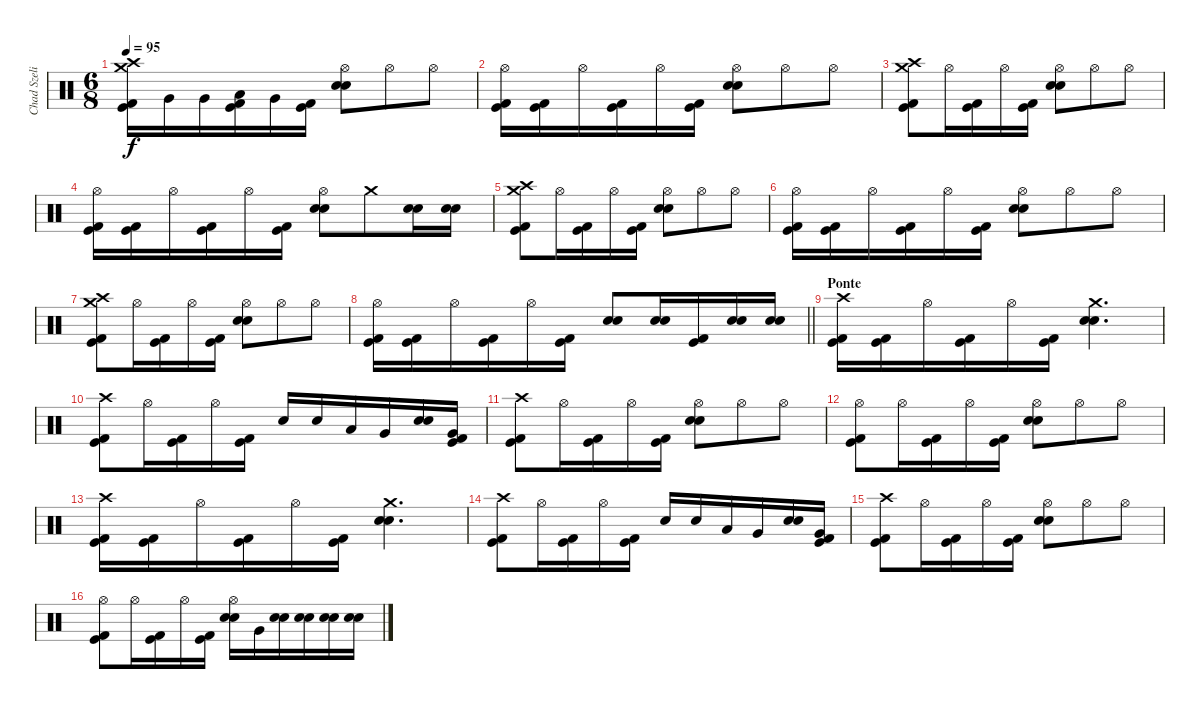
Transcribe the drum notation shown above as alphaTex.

\track ("Chad Szeliga" "Chad Szeli") {instrument percussion}
\staff {score}
\articulation defaults
\ts (6 8)
\tempo 95
\clef neutral
\ks c
("Crash high (hit)" "Kick (hit) 2" "Kick (hit)" "Crash medium (hit)").16{dy f} "Very Low Tom (hit)".16 "Very Low Tom (hit)".16 ("Kick (hit) 2" "Kick (hit)" "Low Tom (hit)").16 "Very Low Tom (hit)".16 ("Kick (hit) 2" "Kick (hit)").16 ("Snare (hit) 2" "Snare (hit) 2" "Hi-Hat (open)").8 "Hi-Hat (open)".8 "Hi-Hat (open)".8 |
("Kick (hit) 2" "Kick (hit)" "Hi-Hat (open)").16 ("Kick (hit) 2" "Kick (hit)").16 "Hi-Hat (open)".16 ("Kick (hit) 2" "Kick (hit)").16 "Hi-Hat (open)".16 ("Kick (hit) 2" "Kick (hit)").16 ("Snare (hit) 2" "Snare (hit) 2" "Hi-Hat (open)").8 "Hi-Hat (open)".8 "Hi-Hat (open)".8 |
("Crash high (hit)" "Kick (hit) 2" "Kick (hit)" "Crash medium (hit)").8 "Hi-Hat (open)".16 ("Kick (hit) 2" "Kick (hit)").16 "Hi-Hat (open)".16 ("Kick (hit) 2" "Kick (hit)").16 ("Snare (hit) 2" "Snare (hit) 2" "Hi-Hat (open)").8 "Hi-Hat (open)".8 "Hi-Hat (open)".8 |
("Kick (hit) 2" "Kick (hit)" "Hi-Hat (open)").16 ("Kick (hit) 2" "Kick (hit)").16 "Hi-Hat (open)".16 ("Kick (hit) 2" "Kick (hit)").16 "Hi-Hat (open)".16 ("Kick (hit) 2" "Kick (hit)").16 ("Snare (hit) 2" "Snare (hit) 2" "Hi-Hat (open)").8 "Crash medium (hit)".8 ("Snare (hit) 2" "Snare (hit) 2").16 ("Snare (hit) 2" "Snare (hit) 2").16 |
("Crash high (hit)" "Kick (hit) 2" "Kick (hit)" "Crash medium (hit)").8 "Hi-Hat (open)".16 ("Kick (hit) 2" "Kick (hit)").16 "Hi-Hat (open)".16 ("Kick (hit) 2" "Kick (hit)").16 ("Snare (hit) 2" "Snare (hit) 2" "Hi-Hat (open)").8 "Hi-Hat (open)".8 "Hi-Hat (open)".8 |
("Kick (hit) 2" "Kick (hit)" "Hi-Hat (open)").16 ("Kick (hit) 2" "Kick (hit)").16 "Hi-Hat (open)".16 ("Kick (hit) 2" "Kick (hit)").16 "Hi-Hat (open)".16 ("Kick (hit) 2" "Kick (hit)").16 ("Snare (hit) 2" "Snare (hit) 2" "Hi-Hat (open)").8 "Hi-Hat (open)".8 "Hi-Hat (open)".8 |
("Crash high (hit)" "Kick (hit) 2" "Kick (hit)" "Crash medium (hit)").8 "Hi-Hat (open)".16 ("Kick (hit) 2" "Kick (hit)").16 "Hi-Hat (open)".16 ("Kick (hit) 2" "Kick (hit)").16 ("Snare (hit) 2" "Snare (hit) 2" "Hi-Hat (open)").8 "Hi-Hat (open)".8 "Hi-Hat (open)".8 |
\barLineRight lightlight
("Kick (hit) 2" "Kick (hit)" "Hi-Hat (open)").16 ("Kick (hit) 2" "Kick (hit)").16 "Hi-Hat (open)".16 ("Kick (hit) 2" "Kick (hit)").16 "Hi-Hat (open)".16 ("Kick (hit) 2" "Kick (hit)").16 ("Snare (hit) 2" "Snare (hit) 2").8 ("Snare (hit) 2" "Snare (hit) 2").16 ("Kick (hit) 2" "Kick (hit)").16 ("Snare (hit) 2" "Snare (hit) 2").16 ("Snare (hit) 2" "Snare (hit) 2").16 |
\section ("" "Ponte")
("Crash high (hit)" "Kick (hit) 2" "Kick (hit)").16 ("Kick (hit) 2" "Kick (hit)").16 "Hi-Hat (open)".16 ("Kick (hit) 2" "Kick (hit)").16 "Hi-Hat (open)".16 ("Kick (hit) 2" "Kick (hit)").16 ("Crash medium (hit)" "Snare (hit) 2" "Snare (hit) 2").4{d} |
("Crash high (hit)" "Kick (hit) 2" "Kick (hit)").8 "Hi-Hat (open)".16 ("Kick (hit) 2" "Kick (hit)").16 "Hi-Hat (open)".16 ("Kick (hit) 2" "Kick (hit)").16 "Snare (hit) 2".16 "Snare (hit) 2".16 "Low Tom (hit)".16 "Very Low Tom (hit)".16 ("Snare (hit) 2" "Snare (hit) 2").16 ("Kick (hit) 2" "Kick (hit)" "Very Low Tom (hit)").16 |
("Crash high (hit)" "Kick (hit) 2" "Kick (hit)").8 "Hi-Hat (open)".16 ("Kick (hit) 2" "Kick (hit)").16 "Hi-Hat (open)".16 ("Kick (hit) 2" "Kick (hit)").16 ("Snare (hit) 2" "Snare (hit) 2" "Hi-Hat (open)").8 "Hi-Hat (open)".8 "Hi-Hat (open)".8 |
("Kick (hit) 2" "Kick (hit)" "Hi-Hat (open)").8 "Hi-Hat (open)".16 ("Kick (hit) 2" "Kick (hit)").16 "Hi-Hat (open)".16 ("Kick (hit) 2" "Kick (hit)").16 ("Snare (hit) 2" "Snare (hit) 2" "Hi-Hat (open)").8 "Hi-Hat (open)".8 "Hi-Hat (open)".8 |
("Crash high (hit)" "Kick (hit) 2" "Kick (hit)").16 ("Kick (hit) 2" "Kick (hit)").16 "Hi-Hat (open)".16 ("Kick (hit) 2" "Kick (hit)").16 "Hi-Hat (open)".16 ("Kick (hit) 2" "Kick (hit)").16 ("Crash medium (hit)" "Snare (hit) 2" "Snare (hit) 2").4{d} |
("Crash high (hit)" "Kick (hit) 2" "Kick (hit)").8 "Hi-Hat (open)".16 ("Kick (hit) 2" "Kick (hit)").16 "Hi-Hat (open)".16 ("Kick (hit) 2" "Kick (hit)").16 "Snare (hit) 2".16 "Snare (hit) 2".16 "Low Tom (hit)".16 "Very Low Tom (hit)".16 ("Snare (hit) 2" "Snare (hit) 2").16 ("Kick (hit) 2" "Kick (hit)" "Very Low Tom (hit)").16 |
("Crash high (hit)" "Kick (hit) 2" "Kick (hit)").8 "Hi-Hat (open)".16 ("Kick (hit) 2" "Kick (hit)").16 "Hi-Hat (open)".16 ("Kick (hit) 2" "Kick (hit)").16 ("Snare (hit) 2" "Snare (hit) 2" "Hi-Hat (open)").8 "Hi-Hat (open)".8 "Hi-Hat (open)".8 |
("Kick (hit) 2" "Kick (hit)" "Hi-Hat (open)").8 "Hi-Hat (open)".16 ("Kick (hit) 2" "Kick (hit)").16 "Hi-Hat (open)".16 ("Kick (hit) 2" "Kick (hit)").16 ("Snare (hit) 2" "Snare (hit) 2" "Hi-Hat (open)").16 "Very Low Tom (hit)".16 ("Snare (hit) 2" "Snare (hit) 2").16 ("Snare (hit) 2" "Snare (hit) 2").16 ("Snare (hit) 2" "Snare (hit) 2").16 ("Snare (hit) 2" "Snare (hit) 2").16
